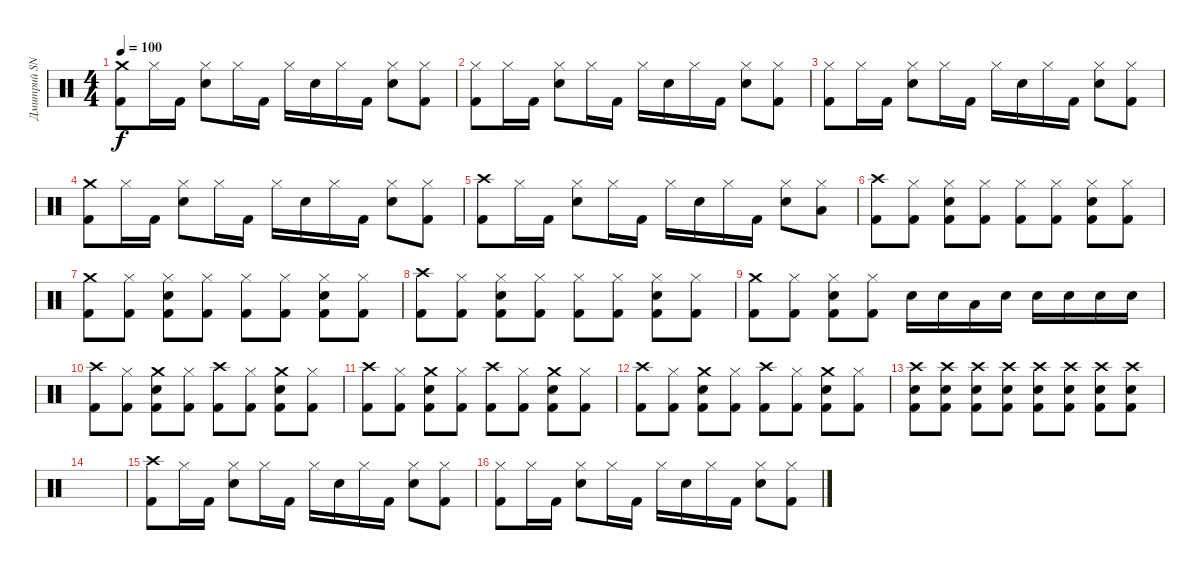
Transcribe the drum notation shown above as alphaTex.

\track ("Дмитрий SNAKE Хакимов" "Дмитрий SN") {instrument percussion}
\staff {score}
\articulation defaults
\ts (4 4)
\tempo 100
\clef neutral
\ks c
("Crash medium (hit)" "Kick (hit) 2").8{dy f} "Hi-Hat (closed)".16 "Kick (hit) 2".16 ("Hi-Hat (closed)" "Snare (hit) 2").8 "Hi-Hat (closed)".16 "Kick (hit) 2".16 "Hi-Hat (closed)".16 "Snare (hit) 2".16 "Hi-Hat (closed)".16 "Kick (hit) 2".16 ("Hi-Hat (closed)" "Snare (hit) 2").8 ("Hi-Hat (closed)" "Kick (hit) 2").8 |
("Hi-Hat (closed)" "Kick (hit) 2").8 "Hi-Hat (closed)".16 "Kick (hit) 2".16 ("Hi-Hat (closed)" "Snare (hit) 2").8 "Hi-Hat (closed)".16 "Kick (hit) 2".16 "Hi-Hat (closed)".16 "Snare (hit) 2".16 "Hi-Hat (closed)".16 "Kick (hit) 2".16 ("Hi-Hat (closed)" "Snare (hit) 2").8 ("Hi-Hat (closed)" "Kick (hit) 2").8 |
("Hi-Hat (closed)" "Kick (hit) 2").8 "Hi-Hat (closed)".16 "Kick (hit) 2".16 ("Hi-Hat (closed)" "Snare (hit) 2").8 "Hi-Hat (closed)".16 "Kick (hit) 2".16 "Hi-Hat (closed)".16 "Snare (hit) 2".16 "Hi-Hat (closed)".16 "Kick (hit) 2".16 ("Hi-Hat (closed)" "Snare (hit) 2").8 ("Hi-Hat (closed)" "Kick (hit) 2").8 |
("Crash medium (hit)" "Kick (hit) 2").8 "Hi-Hat (closed)".16 "Kick (hit) 2".16 ("Hi-Hat (closed)" "Snare (hit) 2").8 "Hi-Hat (closed)".16 "Kick (hit) 2".16 "Hi-Hat (closed)".16 "Snare (hit) 2".16 "Hi-Hat (closed)".16 "Kick (hit) 2".16 ("Hi-Hat (closed)" "Snare (hit) 2").8 ("Hi-Hat (closed)" "Kick (hit) 2").8 |
("Crash high (hit)" "Kick (hit) 2").8 "Hi-Hat (closed)".16 "Kick (hit) 2".16 ("Hi-Hat (closed)" "Snare (hit) 2").8 "Hi-Hat (closed)".16 "Kick (hit) 2".16 "Hi-Hat (closed)".16 "Snare (hit) 2".16 "Hi-Hat (closed)".16 "Kick (hit) 2".16 ("Hi-Hat (closed)" "Snare (hit) 2").8 ("Hi-Hat (closed)" "Low Tom (hit)").8 |
("Crash high (hit)" "Kick (hit) 2").8 ("Hi-Hat (closed)" "Kick (hit) 2").8 ("Hi-Hat (closed)" "Snare (hit) 2" "Kick (hit) 2").8 ("Hi-Hat (closed)" "Kick (hit) 2").8 ("Hi-Hat (closed)" "Kick (hit) 2").8 ("Hi-Hat (closed)" "Kick (hit) 2").8 ("Hi-Hat (closed)" "Snare (hit) 2" "Kick (hit) 2").8 ("Hi-Hat (closed)" "Kick (hit) 2").8 |
("Crash medium (hit)" "Kick (hit) 2").8 ("Hi-Hat (closed)" "Kick (hit) 2").8 ("Hi-Hat (closed)" "Snare (hit) 2" "Kick (hit) 2").8 ("Hi-Hat (closed)" "Kick (hit) 2").8 ("Hi-Hat (closed)" "Kick (hit) 2").8 ("Hi-Hat (closed)" "Kick (hit) 2").8 ("Hi-Hat (closed)" "Snare (hit) 2" "Kick (hit) 2").8 ("Hi-Hat (closed)" "Kick (hit) 2").8 |
("Crash high (hit)" "Kick (hit) 2").8 ("Hi-Hat (closed)" "Kick (hit) 2").8 ("Hi-Hat (closed)" "Snare (hit) 2" "Kick (hit) 2").8 ("Hi-Hat (closed)" "Kick (hit) 2").8 ("Hi-Hat (closed)" "Kick (hit) 2").8 ("Hi-Hat (closed)" "Kick (hit) 2").8 ("Hi-Hat (closed)" "Snare (hit) 2" "Kick (hit) 2").8 ("Hi-Hat (closed)" "Kick (hit) 2").8 |
("Crash medium (hit)" "Kick (hit) 2").8 ("Hi-Hat (closed)" "Kick (hit) 2").8 ("Hi-Hat (closed)" "Snare (hit) 2" "Kick (hit) 2").8 ("Hi-Hat (closed)" "Kick (hit) 2").8 "Snare (hit) 2".16 "Snare (hit) 2".16 "Low Tom (hit)".16 "Snare (hit) 2".16 "Snare (hit) 2".16 "Snare (hit) 2".16 "Snare (hit) 2".16 "Snare (hit) 2".16 |
("Crash high (hit)" "Kick (hit) 2").8 ("Hi-Hat (closed)" "Kick (hit) 2").8 ("Crash medium (hit)" "Snare (hit) 2" "Kick (hit) 2").8 ("Hi-Hat (closed)" "Kick (hit) 2").8 ("Crash high (hit)" "Kick (hit) 2").8 ("Hi-Hat (closed)" "Kick (hit) 2").8 ("Crash medium (hit)" "Snare (hit) 2" "Kick (hit) 2").8 ("Hi-Hat (closed)" "Kick (hit) 2").8 |
("Crash high (hit)" "Kick (hit) 2").8 ("Hi-Hat (closed)" "Kick (hit) 2").8 ("Crash medium (hit)" "Snare (hit) 2" "Kick (hit) 2").8 ("Hi-Hat (closed)" "Kick (hit) 2").8 ("Crash high (hit)" "Kick (hit) 2").8 ("Hi-Hat (closed)" "Kick (hit) 2").8 ("Crash medium (hit)" "Snare (hit) 2" "Kick (hit) 2").8 ("Hi-Hat (closed)" "Kick (hit) 2").8 |
("Crash high (hit)" "Kick (hit) 2").8 ("Hi-Hat (closed)" "Kick (hit) 2").8 ("Crash medium (hit)" "Snare (hit) 2" "Kick (hit) 2").8 ("Hi-Hat (closed)" "Kick (hit) 2").8 ("Crash high (hit)" "Kick (hit) 2").8 ("Hi-Hat (closed)" "Kick (hit) 2").8 ("Crash medium (hit)" "Snare (hit) 2" "Kick (hit) 2").8 ("Hi-Hat (closed)" "Kick (hit) 2").8 |
("Crash high (hit)" "Snare (hit) 2" "Kick (hit) 2").8 ("Crash high (hit)" "Snare (hit) 2" "Kick (hit) 2").8 ("Crash high (hit)" "Snare (hit) 2" "Kick (hit) 2").8 ("Crash high (hit)" "Snare (hit) 2" "Kick (hit) 2").8 ("Crash high (hit)" "Snare (hit) 2" "Kick (hit) 2").8 ("Crash high (hit)" "Snare (hit) 2" "Kick (hit) 2").8 ("Crash high (hit)" "Snare (hit) 2" "Kick (hit) 2").8 ("Crash high (hit)" "Snare (hit) 2" "Kick (hit) 2").8 |
|
("Crash high (hit)" "Kick (hit) 2").8 "Hi-Hat (closed)".16 "Kick (hit) 2".16 ("Hi-Hat (closed)" "Snare (hit) 2").8 "Hi-Hat (closed)".16 "Kick (hit) 2".16 "Hi-Hat (closed)".16 "Snare (hit) 2".16 "Hi-Hat (closed)".16 "Kick (hit) 2".16 ("Hi-Hat (closed)" "Snare (hit) 2").8 ("Hi-Hat (closed)" "Kick (hit) 2").8 |
("Hi-Hat (closed)" "Kick (hit) 2").8 "Hi-Hat (closed)".16 "Kick (hit) 2".16 ("Hi-Hat (closed)" "Snare (hit) 2").8 "Hi-Hat (closed)".16 "Kick (hit) 2".16 "Hi-Hat (closed)".16 "Snare (hit) 2".16 "Hi-Hat (closed)".16 "Kick (hit) 2".16 ("Hi-Hat (closed)" "Snare (hit) 2").8 ("Hi-Hat (closed)" "Kick (hit) 2").8
